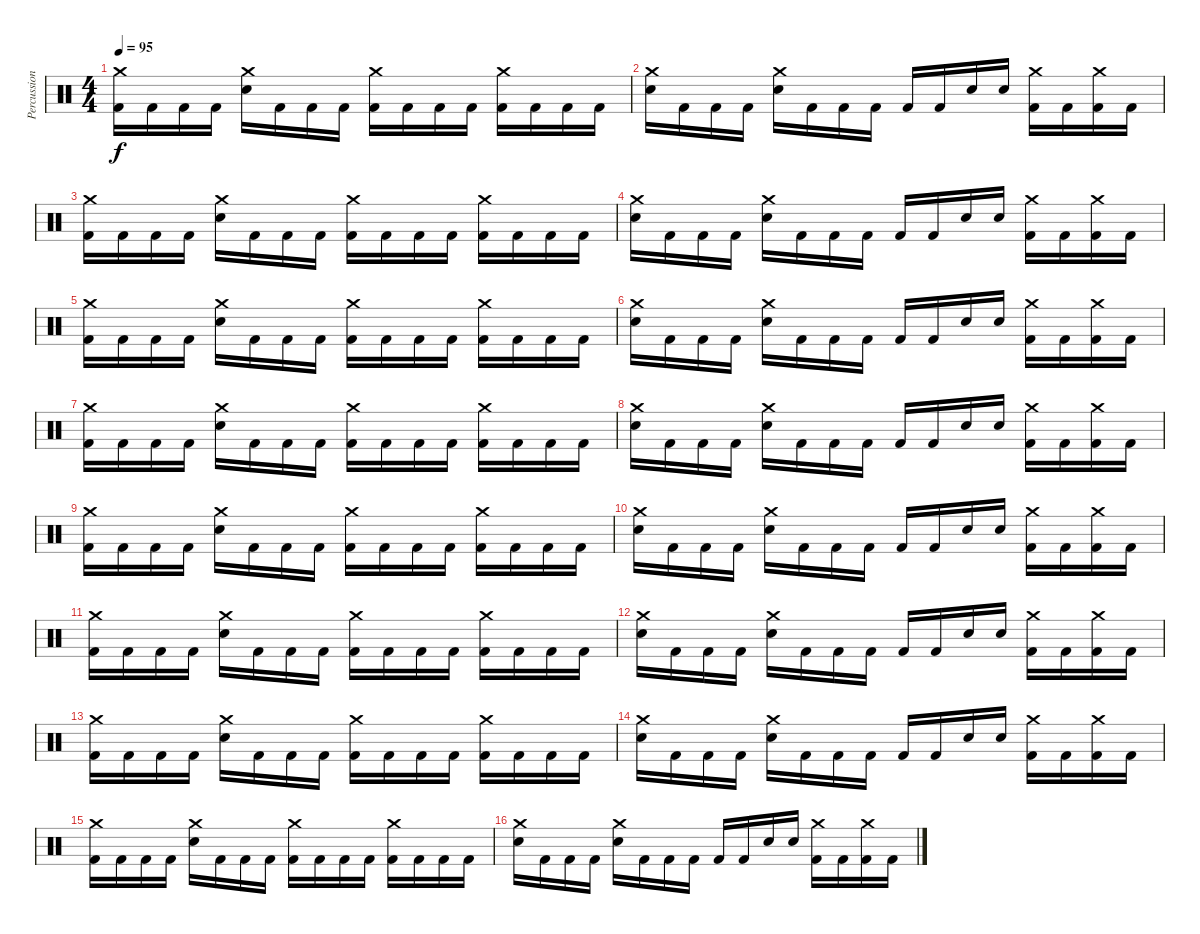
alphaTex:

\track ("Percussion" "Percussion") {instrument percussion}
\staff {score}
\articulation defaults
\ts (4 4)
\tempo 95
\clef neutral
\ks c
("Crash medium (hit)" "Kick (hit) 2").16{dy f} "Kick (hit) 2".16 "Kick (hit) 2".16 "Kick (hit) 2".16 ("Crash medium (hit)" "Electric Snare (hit)").16 "Kick (hit) 2".16 "Kick (hit) 2".16 "Kick (hit) 2".16 ("Crash medium (hit)" "Kick (hit) 2").16 "Kick (hit) 2".16 "Kick (hit) 2".16 "Kick (hit) 2".16 ("Crash medium (hit)" "Kick (hit) 2").16 "Kick (hit) 2".16 "Kick (hit) 2".16 "Kick (hit) 2".16 |
("Crash medium (hit)" "Electric Snare (hit)").16 "Kick (hit) 2".16 "Kick (hit) 2".16 "Kick (hit) 2".16 ("Crash medium (hit)" "Electric Snare (hit)").16 "Kick (hit) 2".16 "Kick (hit) 2".16 "Kick (hit) 2".16 "Kick (hit) 2".16 "Kick (hit) 2".16 "Electric Snare (hit)".16 "Electric Snare (hit)".16 ("Crash medium (hit)" "Kick (hit) 2").16 "Kick (hit) 2".16 ("Crash medium (hit)" "Kick (hit) 2").16 "Kick (hit) 2".16 |
("Crash medium (hit)" "Kick (hit) 2").16 "Kick (hit) 2".16 "Kick (hit) 2".16 "Kick (hit) 2".16 ("Crash medium (hit)" "Electric Snare (hit)").16 "Kick (hit) 2".16 "Kick (hit) 2".16 "Kick (hit) 2".16 ("Crash medium (hit)" "Kick (hit) 2").16 "Kick (hit) 2".16 "Kick (hit) 2".16 "Kick (hit) 2".16 ("Crash medium (hit)" "Kick (hit) 2").16 "Kick (hit) 2".16 "Kick (hit) 2".16 "Kick (hit) 2".16 |
("Crash medium (hit)" "Electric Snare (hit)").16 "Kick (hit) 2".16 "Kick (hit) 2".16 "Kick (hit) 2".16 ("Crash medium (hit)" "Electric Snare (hit)").16 "Kick (hit) 2".16 "Kick (hit) 2".16 "Kick (hit) 2".16 "Kick (hit) 2".16 "Kick (hit) 2".16 "Electric Snare (hit)".16 "Electric Snare (hit)".16 ("Crash medium (hit)" "Kick (hit) 2").16 "Kick (hit) 2".16 ("Crash medium (hit)" "Kick (hit) 2").16 "Kick (hit) 2".16 |
("Crash medium (hit)" "Kick (hit) 2").16 "Kick (hit) 2".16 "Kick (hit) 2".16 "Kick (hit) 2".16 ("Crash medium (hit)" "Electric Snare (hit)").16 "Kick (hit) 2".16 "Kick (hit) 2".16 "Kick (hit) 2".16 ("Crash medium (hit)" "Kick (hit) 2").16 "Kick (hit) 2".16 "Kick (hit) 2".16 "Kick (hit) 2".16 ("Crash medium (hit)" "Kick (hit) 2").16 "Kick (hit) 2".16 "Kick (hit) 2".16 "Kick (hit) 2".16 |
("Crash medium (hit)" "Electric Snare (hit)").16 "Kick (hit) 2".16 "Kick (hit) 2".16 "Kick (hit) 2".16 ("Crash medium (hit)" "Electric Snare (hit)").16 "Kick (hit) 2".16 "Kick (hit) 2".16 "Kick (hit) 2".16 "Kick (hit) 2".16 "Kick (hit) 2".16 "Electric Snare (hit)".16 "Electric Snare (hit)".16 ("Crash medium (hit)" "Kick (hit) 2").16 "Kick (hit) 2".16 ("Crash medium (hit)" "Kick (hit) 2").16 "Kick (hit) 2".16 |
("Crash medium (hit)" "Kick (hit) 2").16 "Kick (hit) 2".16 "Kick (hit) 2".16 "Kick (hit) 2".16 ("Crash medium (hit)" "Electric Snare (hit)").16 "Kick (hit) 2".16 "Kick (hit) 2".16 "Kick (hit) 2".16 ("Crash medium (hit)" "Kick (hit) 2").16 "Kick (hit) 2".16 "Kick (hit) 2".16 "Kick (hit) 2".16 ("Crash medium (hit)" "Kick (hit) 2").16 "Kick (hit) 2".16 "Kick (hit) 2".16 "Kick (hit) 2".16 |
("Crash medium (hit)" "Electric Snare (hit)").16 "Kick (hit) 2".16 "Kick (hit) 2".16 "Kick (hit) 2".16 ("Crash medium (hit)" "Electric Snare (hit)").16 "Kick (hit) 2".16 "Kick (hit) 2".16 "Kick (hit) 2".16 "Kick (hit) 2".16 "Kick (hit) 2".16 "Electric Snare (hit)".16 "Electric Snare (hit)".16 ("Crash medium (hit)" "Kick (hit) 2").16 "Kick (hit) 2".16 ("Crash medium (hit)" "Kick (hit) 2").16 "Kick (hit) 2".16 |
("Crash medium (hit)" "Kick (hit) 2").16 "Kick (hit) 2".16 "Kick (hit) 2".16 "Kick (hit) 2".16 ("Crash medium (hit)" "Electric Snare (hit)").16 "Kick (hit) 2".16 "Kick (hit) 2".16 "Kick (hit) 2".16 ("Crash medium (hit)" "Kick (hit) 2").16 "Kick (hit) 2".16 "Kick (hit) 2".16 "Kick (hit) 2".16 ("Crash medium (hit)" "Kick (hit) 2").16 "Kick (hit) 2".16 "Kick (hit) 2".16 "Kick (hit) 2".16 |
("Crash medium (hit)" "Electric Snare (hit)").16 "Kick (hit) 2".16 "Kick (hit) 2".16 "Kick (hit) 2".16 ("Crash medium (hit)" "Electric Snare (hit)").16 "Kick (hit) 2".16 "Kick (hit) 2".16 "Kick (hit) 2".16 "Kick (hit) 2".16 "Kick (hit) 2".16 "Electric Snare (hit)".16 "Electric Snare (hit)".16 ("Crash medium (hit)" "Kick (hit) 2").16 "Kick (hit) 2".16 ("Crash medium (hit)" "Kick (hit) 2").16 "Kick (hit) 2".16 |
("Crash medium (hit)" "Kick (hit) 2").16 "Kick (hit) 2".16 "Kick (hit) 2".16 "Kick (hit) 2".16 ("Crash medium (hit)" "Electric Snare (hit)").16 "Kick (hit) 2".16 "Kick (hit) 2".16 "Kick (hit) 2".16 ("Crash medium (hit)" "Kick (hit) 2").16 "Kick (hit) 2".16 "Kick (hit) 2".16 "Kick (hit) 2".16 ("Crash medium (hit)" "Kick (hit) 2").16 "Kick (hit) 2".16 "Kick (hit) 2".16 "Kick (hit) 2".16 |
("Crash medium (hit)" "Electric Snare (hit)").16 "Kick (hit) 2".16 "Kick (hit) 2".16 "Kick (hit) 2".16 ("Crash medium (hit)" "Electric Snare (hit)").16 "Kick (hit) 2".16 "Kick (hit) 2".16 "Kick (hit) 2".16 "Kick (hit) 2".16 "Kick (hit) 2".16 "Electric Snare (hit)".16 "Electric Snare (hit)".16 ("Crash medium (hit)" "Kick (hit) 2").16 "Kick (hit) 2".16 ("Crash medium (hit)" "Kick (hit) 2").16 "Kick (hit) 2".16 |
("Crash medium (hit)" "Kick (hit) 2").16 "Kick (hit) 2".16 "Kick (hit) 2".16 "Kick (hit) 2".16 ("Crash medium (hit)" "Electric Snare (hit)").16 "Kick (hit) 2".16 "Kick (hit) 2".16 "Kick (hit) 2".16 ("Crash medium (hit)" "Kick (hit) 2").16 "Kick (hit) 2".16 "Kick (hit) 2".16 "Kick (hit) 2".16 ("Crash medium (hit)" "Kick (hit) 2").16 "Kick (hit) 2".16 "Kick (hit) 2".16 "Kick (hit) 2".16 |
("Crash medium (hit)" "Electric Snare (hit)").16 "Kick (hit) 2".16 "Kick (hit) 2".16 "Kick (hit) 2".16 ("Crash medium (hit)" "Electric Snare (hit)").16 "Kick (hit) 2".16 "Kick (hit) 2".16 "Kick (hit) 2".16 "Kick (hit) 2".16 "Kick (hit) 2".16 "Electric Snare (hit)".16 "Electric Snare (hit)".16 ("Crash medium (hit)" "Kick (hit) 2").16 "Kick (hit) 2".16 ("Crash medium (hit)" "Kick (hit) 2").16 "Kick (hit) 2".16 |
("Crash medium (hit)" "Kick (hit) 2").16 "Kick (hit) 2".16 "Kick (hit) 2".16 "Kick (hit) 2".16 ("Crash medium (hit)" "Electric Snare (hit)").16 "Kick (hit) 2".16 "Kick (hit) 2".16 "Kick (hit) 2".16 ("Crash medium (hit)" "Kick (hit) 2").16 "Kick (hit) 2".16 "Kick (hit) 2".16 "Kick (hit) 2".16 ("Crash medium (hit)" "Kick (hit) 2").16 "Kick (hit) 2".16 "Kick (hit) 2".16 "Kick (hit) 2".16 |
("Crash medium (hit)" "Electric Snare (hit)").16 "Kick (hit) 2".16 "Kick (hit) 2".16 "Kick (hit) 2".16 ("Crash medium (hit)" "Electric Snare (hit)").16 "Kick (hit) 2".16 "Kick (hit) 2".16 "Kick (hit) 2".16 "Kick (hit) 2".16 "Kick (hit) 2".16 "Electric Snare (hit)".16 "Electric Snare (hit)".16 ("Crash medium (hit)" "Kick (hit) 2").16 "Kick (hit) 2".16 ("Crash medium (hit)" "Kick (hit) 2").16 "Kick (hit) 2".16
